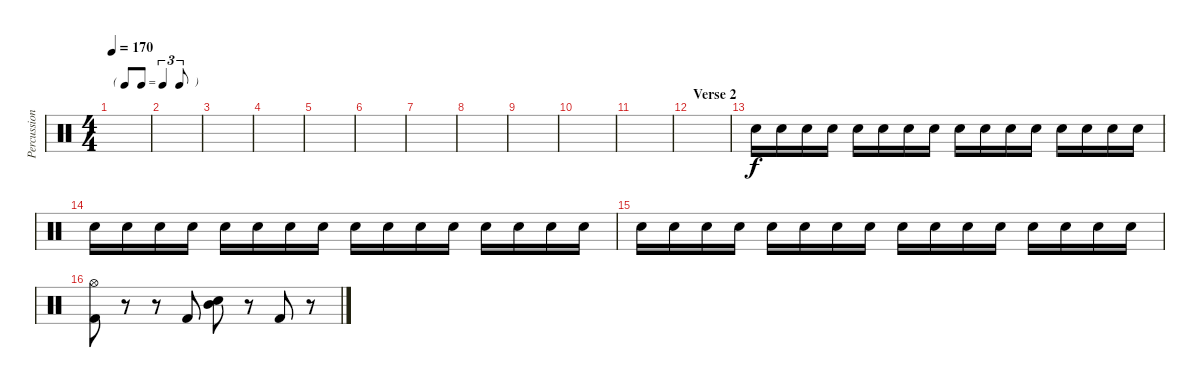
\track ("Percussion" "Percussion") {instrument percussion}
\staff {score}
\articulation defaults
\ts (4 4)
\tf triplet8th
\tempo 170
\clef neutral
\ks c
|
|
|
|
|
|
|
|
|
|
|
\section ("" "Verse 2")
|
"Electric Snare (hit)".16{volume 2} "Electric Snare (hit)".16{volume 4} "Electric Snare (hit)".16 "Electric Snare (hit)".16 "Electric Snare (hit)".16 "Electric Snare (hit)".16 "Electric Snare (hit)".16 "Electric Snare (hit)".16 "Electric Snare (hit)".16 "Electric Snare (hit)".16 "Electric Snare (hit)".16 "Electric Snare (hit)".16 "Electric Snare (hit)".16 "Electric Snare (hit)".16 "Electric Snare (hit)".16 "Electric Snare (hit)".16 |
"Electric Snare (hit)".16 "Electric Snare (hit)".16 "Electric Snare (hit)".16 "Electric Snare (hit)".16 "Electric Snare (hit)".16 "Electric Snare (hit)".16 "Electric Snare (hit)".16 "Electric Snare (hit)".16 "Electric Snare (hit)".16 "Electric Snare (hit)".16 "Electric Snare (hit)".16 "Electric Snare (hit)".16 "Electric Snare (hit)".16 "Electric Snare (hit)".16 "Electric Snare (hit)".16 "Electric Snare (hit)".16 |
"Electric Snare (hit)".16 "Electric Snare (hit)".16 "Electric Snare (hit)".16 "Electric Snare (hit)".16 "Electric Snare (hit)".16 "Electric Snare (hit)".16 "Electric Snare (hit)".16 "Electric Snare (hit)".16 "Electric Snare (hit)".16 "Electric Snare (hit)".16 "Electric Snare (hit)".16 "Electric Snare (hit)".16 "Electric Snare (hit)".16 "Electric Snare (hit)".16 "Electric Snare (hit)".16 "Electric Snare (hit)".16 |
("Hi-Hat (open)" "Kick (hit) 2").8{volume 13} r.8 r.8 "Kick (hit) 2".8 ("Electric Snare (hit)" "Mid Tom (hit)").8 r.8 "Kick (hit) 2".8 r.8
